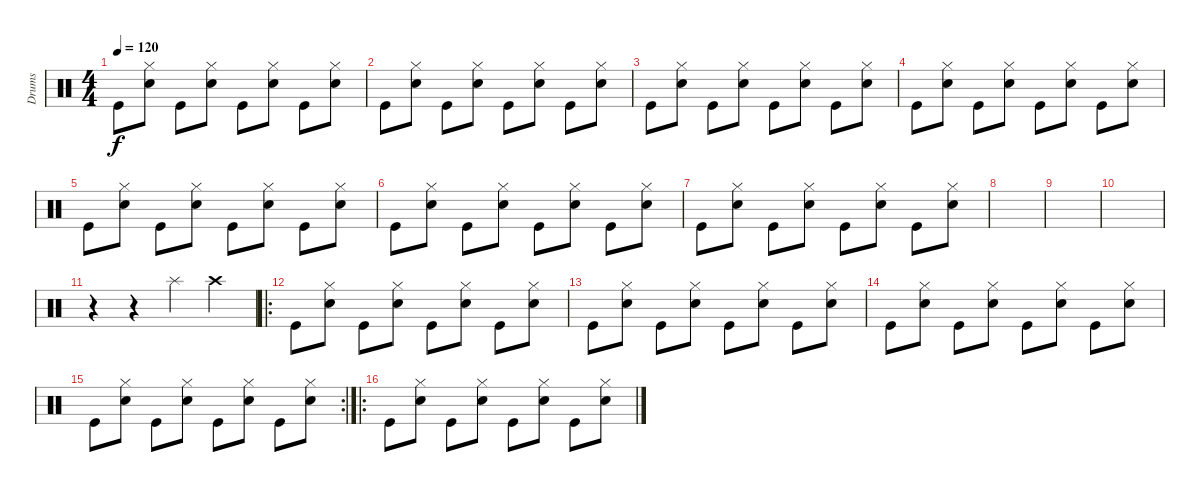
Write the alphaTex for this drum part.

\track ("Drums" "Drums") {instrument percussion}
\staff {score}
\articulation defaults
\ts (4 4)
\tempo 120
\clef neutral
\ks c "Kick (hit)".8{dy f}
("Hi-Hat (closed)" "Snare (hit) 2").8 "Kick (hit)".8 ("Hi-Hat (closed)" "Snare (hit) 2").8 "Kick (hit)".8 ("Hi-Hat (closed)" "Snare (hit) 2").8 "Kick (hit)".8 ("Hi-Hat (closed)" "Snare (hit) 2").8 |
"Kick (hit)".8 ("Hi-Hat (closed)" "Snare (hit) 2").8 "Kick (hit)".8 ("Hi-Hat (closed)" "Snare (hit) 2").8 "Kick (hit)".8 ("Hi-Hat (closed)" "Snare (hit) 2").8 "Kick (hit)".8 ("Hi-Hat (closed)" "Snare (hit) 2").8 |
"Kick (hit)".8 ("Hi-Hat (closed)" "Snare (hit) 2").8 "Kick (hit)".8 ("Hi-Hat (closed)" "Snare (hit) 2").8 "Kick (hit)".8 ("Hi-Hat (closed)" "Snare (hit) 2").8 "Kick (hit)".8 ("Hi-Hat (closed)" "Snare (hit) 2").8 |
"Kick (hit)".8 ("Hi-Hat (closed)" "Snare (hit) 2").8 "Kick (hit)".8 ("Hi-Hat (closed)" "Snare (hit) 2").8 "Kick (hit)".8 ("Hi-Hat (closed)" "Snare (hit) 2").8 "Kick (hit)".8 ("Hi-Hat (closed)" "Snare (hit) 2").8 |
"Kick (hit)".8 ("Hi-Hat (closed)" "Snare (hit) 2").8 "Kick (hit)".8 ("Hi-Hat (closed)" "Snare (hit) 2").8 "Kick (hit)".8 ("Hi-Hat (closed)" "Snare (hit) 2").8 "Kick (hit)".8 ("Hi-Hat (closed)" "Snare (hit) 2").8 |
"Kick (hit)".8 ("Hi-Hat (closed)" "Snare (hit) 2").8 "Kick (hit)".8 ("Hi-Hat (closed)" "Snare (hit) 2").8 "Kick (hit)".8 ("Hi-Hat (closed)" "Snare (hit) 2").8 "Kick (hit)".8 ("Hi-Hat (closed)" "Snare (hit) 2").8 |
"Kick (hit)".8 ("Hi-Hat (closed)" "Snare (hit) 2").8 "Kick (hit)".8 ("Hi-Hat (closed)" "Snare (hit) 2").8 "Kick (hit)".8 ("Hi-Hat (closed)" "Snare (hit) 2").8 "Kick (hit)".8 ("Hi-Hat (closed)" "Snare (hit) 2").8 |
|
|
|
r.4 r.4 "Splash (hit)".4 "Crash high (hit)".4 |
\ro "Kick (hit)".8
("Hi-Hat (closed)" "Snare (hit) 2").8 "Kick (hit)".8 ("Hi-Hat (closed)" "Snare (hit) 2").8 "Kick (hit)".8 ("Hi-Hat (closed)" "Snare (hit) 2").8 "Kick (hit)".8 ("Hi-Hat (closed)" "Snare (hit) 2").8 |
"Kick (hit)".8 ("Hi-Hat (closed)" "Snare (hit) 2").8 "Kick (hit)".8 ("Hi-Hat (closed)" "Snare (hit) 2").8 "Kick (hit)".8 ("Hi-Hat (closed)" "Snare (hit) 2").8 "Kick (hit)".8 ("Hi-Hat (closed)" "Snare (hit) 2").8 |
"Kick (hit)".8 ("Hi-Hat (closed)" "Snare (hit) 2").8 "Kick (hit)".8 ("Hi-Hat (closed)" "Snare (hit) 2").8 "Kick (hit)".8 ("Hi-Hat (closed)" "Snare (hit) 2").8 "Kick (hit)".8 ("Hi-Hat (closed)" "Snare (hit) 2").8 |
\rc 2 "Kick (hit)".8
("Hi-Hat (closed)" "Snare (hit) 2").8 "Kick (hit)".8 ("Hi-Hat (closed)" "Snare (hit) 2").8 "Kick (hit)".8 ("Hi-Hat (closed)" "Snare (hit) 2").8 "Kick (hit)".8 ("Hi-Hat (closed)" "Snare (hit) 2").8 |
\ro "Kick (hit)".8
("Hi-Hat (closed)" "Snare (hit) 2").8 "Kick (hit)".8 ("Hi-Hat (closed)" "Snare (hit) 2").8 "Kick (hit)".8 ("Hi-Hat (closed)" "Snare (hit) 2").8 "Kick (hit)".8 ("Hi-Hat (closed)" "Snare (hit) 2").8
